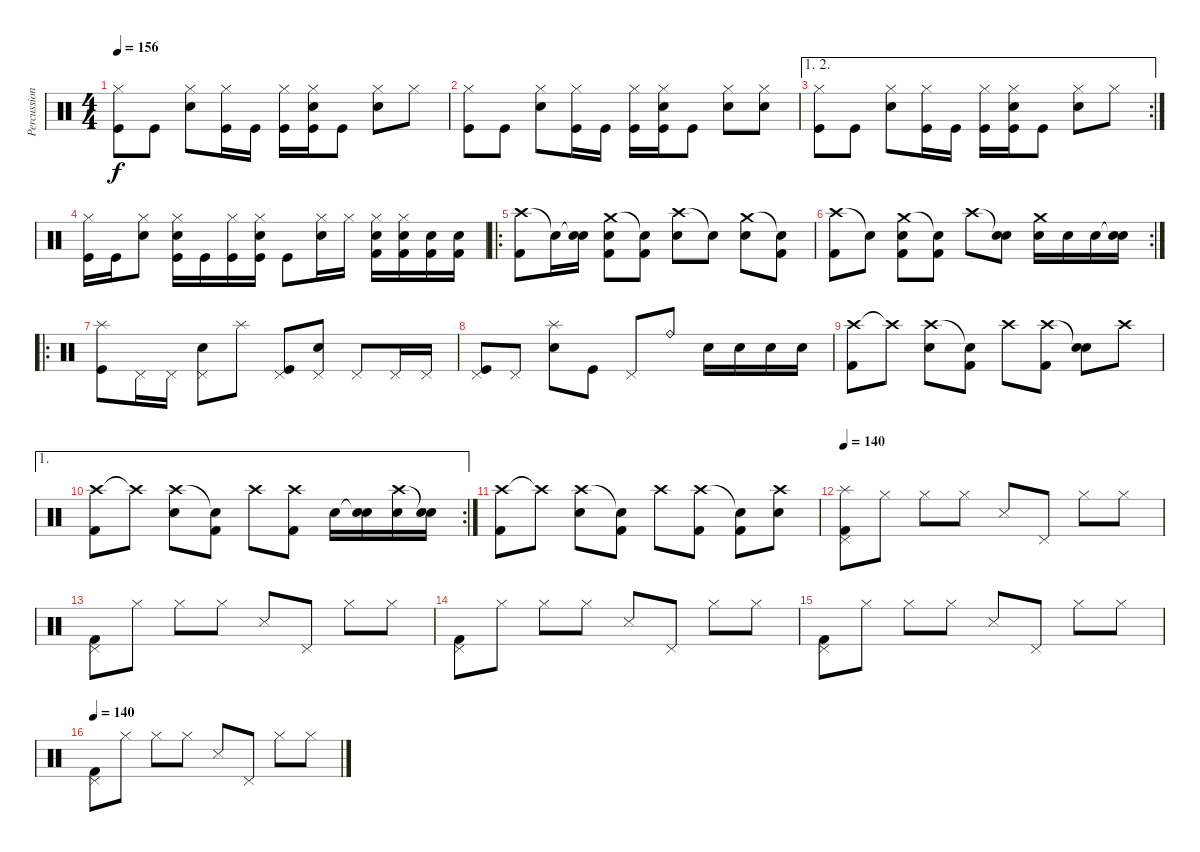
\track ("Percussion" "Percussion") {instrument percussion}
\staff {score}
\articulation defaults
\ts (4 4)
\tempo 156
\clef neutral
\ks c
("Hi-Hat (closed)" "Kick (hit)").8{dy f} "Kick (hit)".8 ("Hi-Hat (closed)" "Electric Snare (hit)").8 ("Hi-Hat (closed)" "Kick (hit)").16 "Kick (hit)".16 ("Hi-Hat (closed)" "Kick (hit)").16 ("Hi-Hat (closed)" "Electric Snare (hit)" "Kick (hit)").16 "Kick (hit)".8 ("Hi-Hat (closed)" "Electric Snare (hit)").8 "Hi-Hat (closed)".8 |
("Hi-Hat (closed)" "Kick (hit)").8 "Kick (hit)".8 ("Hi-Hat (closed)" "Electric Snare (hit)").8 ("Hi-Hat (closed)" "Kick (hit)").16 "Kick (hit)".16 ("Hi-Hat (closed)" "Kick (hit)").16 ("Hi-Hat (closed)" "Electric Snare (hit)" "Kick (hit)").16 "Kick (hit)".8 ("Hi-Hat (closed)" "Electric Snare (hit)").8 ("Hi-Hat (closed)" "Electric Snare (hit)").8 |
\ae (1 2)
\rc 2
("Hi-Hat (closed)" "Kick (hit)").8 "Kick (hit)".8 ("Hi-Hat (closed)" "Electric Snare (hit)").8 ("Hi-Hat (closed)" "Kick (hit)").16 "Kick (hit)".16 ("Hi-Hat (closed)" "Kick (hit)").16 ("Hi-Hat (closed)" "Electric Snare (hit)" "Kick (hit)").16 "Kick (hit)".8 ("Hi-Hat (closed)" "Electric Snare (hit)").8 "Hi-Hat (closed)".8 |
("Hi-Hat (closed)" "Kick (hit)").16 "Kick (hit)".16 ("Hi-Hat (closed)" "Electric Snare (hit)").8 ("Hi-Hat (closed)" "Electric Snare (hit)" "Kick (hit)").16 "Kick (hit)".16 ("Hi-Hat (closed)" "Kick (hit)").16 ("Hi-Hat (closed)" "Electric Snare (hit)" "Kick (hit)").16 "Kick (hit)".8 ("Hi-Hat (closed)" "Electric Snare (hit)").16 "Hi-Hat (closed)".16 ("Hi-Hat (closed)" "Electric Snare (hit)" "Kick (hit) 2").16 ("Hi-Hat (closed)" "Electric Snare (hit)" "Kick (hit) 2").16 ("Electric Snare (hit)" "Kick (hit) 2").16 ("Electric Snare (hit)" "Kick (hit) 2").16 |
\ro
("Crash high (hit)" "Kick (hit) 2").8 "Snare (hit)"{t}.16 ("Snare (hit)"{t} "Electric Snare (hit)").16 ("Crash medium (hit)" "Electric Snare (hit)" "Kick (hit) 2").8 ("Snare (hit)"{t} "Kick (hit) 2").8 ("Crash high (hit)" "Electric Snare (hit)").8 "Snare (hit)"{t}.8 ("Crash medium (hit)" "Electric Snare (hit)").8 ("Snare (hit)"{t} "Kick (hit) 2").8 |
\rc 2
("Crash high (hit)" "Kick (hit) 2").8 "Snare (hit)"{t}.8 ("Crash medium (hit)" "Electric Snare (hit)" "Kick (hit) 2").8 ("Snare (hit)"{t} "Kick (hit) 2").8 "Crash high (hit)".8 ("Snare (hit)"{t} "Electric Snare (hit)").8 ("Crash medium (hit)" "Electric Snare (hit)").16 "Electric Snare (hit)".16 "Electric Snare (hit)".16 ("Snare (hit)"{t} "Electric Snare (hit)").16 |
\ro
("Splash (hit)" "Kick (hit)").8 "Pedal Hi-Hat (hit)".16 "Pedal Hi-Hat (hit)".16 ("Pedal Hi-Hat (hit)" "Electric Snare (hit)").8 "Splash (hit)".8 ("Pedal Hi-Hat (hit)" "Kick (hit)").8 ("Pedal Hi-Hat (hit)" "Electric Snare (hit)").8 "Pedal Hi-Hat (hit)".8 "Pedal Hi-Hat (hit)".16 "Pedal Hi-Hat (hit)".16 |
("Pedal Hi-Hat (hit)" "Kick (hit)").8 "Pedal Hi-Hat (hit)".8 ("Splash (hit)" "Electric Snare (hit)").8 "Kick (hit)".8 "Pedal Hi-Hat (hit)".8 "Ride (bell)".8 "Electric Snare (hit)".16 "Electric Snare (hit)".16 "Electric Snare (hit)".16 "Electric Snare (hit)".16 |
("Crash high (hit)" "Kick (hit) 2").8 "Crash high (hit)"{t}.8 ("Crash high (hit)" "Electric Snare (hit)").8 ("Snare (hit)"{t} "Kick (hit) 2").8 "Crash high (hit)".8 ("Crash high (hit)" "Kick (hit) 2").8 ("Snare (hit)"{t} "Electric Snare (hit)").8 "Crash high (hit)".8 |
\ae 1
\rc 2
("Crash high (hit)" "Kick (hit) 2").8 "Crash high (hit)"{t}.8 ("Crash high (hit)" "Electric Snare (hit)").8 ("Snare (hit)"{t} "Kick (hit) 2").8 "Crash high (hit)".8 ("Crash high (hit)" "Kick (hit) 2").8 "Electric Snare (hit)".16 ("Snare (hit)"{t} "Electric Snare (hit)").16 ("Crash high (hit)" "Electric Snare (hit)").16 ("Snare (hit)"{t} "Electric Snare (hit)").16 |
("Crash high (hit)" "Kick (hit) 2").8 "Crash high (hit)"{t}.8 ("Crash high (hit)" "Electric Snare (hit)").8 ("Snare (hit)"{t} "Kick (hit) 2").8 "Crash high (hit)".8 ("Crash high (hit)" "Kick (hit) 2").8 ("Snare (hit)"{t} "Kick (hit) 2").8 ("Crash high (hit)" "Electric Snare (hit)").8 |
\tempo 140
("Pedal Hi-Hat (hit)" "Splash (hit)" "Kick (hit) 2").8{volume 9} "Hi-Hat (closed)".8 "Hi-Hat (closed)".8 "Hi-Hat (closed)".8 "Snare (side stick) 3".8{volume 13} "Pedal Hi-Hat (hit)".8{volume 9} "Hi-Hat (closed)".8 "Hi-Hat (closed)".8 |
("Pedal Hi-Hat (hit)" "Kick (hit) 2").8{volume 9} "Hi-Hat (closed)".8 "Hi-Hat (closed)".8 "Hi-Hat (closed)".8 "Snare (side stick) 3".8{volume 13} "Pedal Hi-Hat (hit)".8{volume 9} "Hi-Hat (closed)".8 "Hi-Hat (closed)".8 |
("Pedal Hi-Hat (hit)" "Kick (hit) 2").8{volume 9} "Hi-Hat (closed)".8 "Hi-Hat (closed)".8 "Hi-Hat (closed)".8 "Snare (side stick) 3".8{volume 13} "Pedal Hi-Hat (hit)".8{volume 9} "Hi-Hat (closed)".8 "Hi-Hat (closed)".8 |
("Pedal Hi-Hat (hit)" "Kick (hit) 2").8{volume 9} "Hi-Hat (closed)".8 "Hi-Hat (closed)".8 "Hi-Hat (closed)".8 "Snare (side stick) 3".8{volume 13} "Pedal Hi-Hat (hit)".8{volume 9} "Hi-Hat (closed)".8 "Hi-Hat (closed)".8 |
\tempo 140
("Pedal Hi-Hat (hit)" "Kick (hit) 2").8{volume 9} "Hi-Hat (closed)".8 "Hi-Hat (closed)".8 "Hi-Hat (closed)".8 "Snare (side stick) 3".8{volume 13} "Pedal Hi-Hat (hit)".8{volume 9} "Hi-Hat (closed)".8 "Hi-Hat (closed)".8
